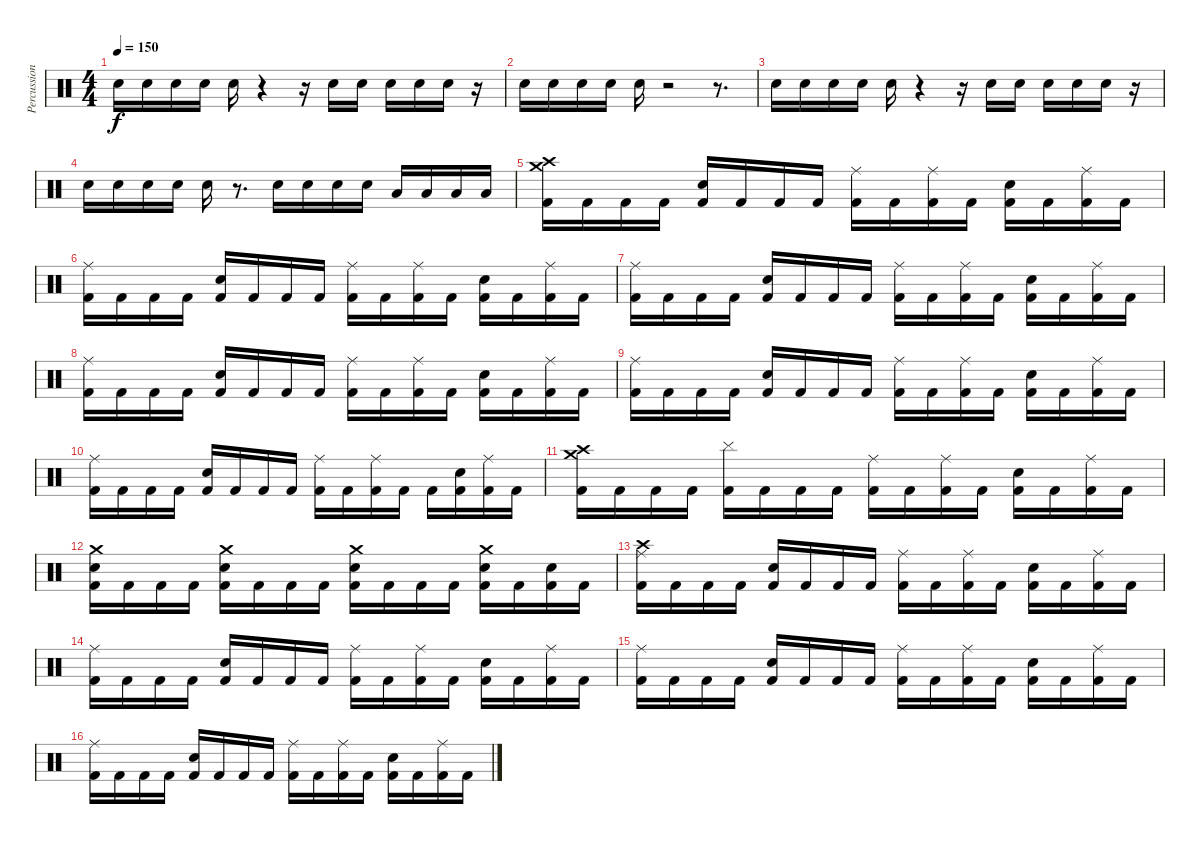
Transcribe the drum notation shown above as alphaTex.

\track ("Percussion" "Percussion") {instrument percussion}
\staff {score}
\articulation defaults
\ts (4 4)
\tempo 150
\clef neutral
\ks c "Electric Snare (hit)".16{dy f} "Electric Snare (hit)".16 "Electric Snare (hit)".16 "Electric Snare (hit)".16 "Electric Snare (hit)".16
r.4 r.16 "Electric Snare (hit)".16 "Electric Snare (hit)".16 "Electric Snare (hit)".16 "Electric Snare (hit)".16 "Electric Snare (hit)".16 r.16 |
"Electric Snare (hit)".16 "Electric Snare (hit)".16 "Electric Snare (hit)".16 "Electric Snare (hit)".16 "Electric Snare (hit)".16 r.2 r.8{d} |
"Electric Snare (hit)".16 "Electric Snare (hit)".16 "Electric Snare (hit)".16 "Electric Snare (hit)".16 "Electric Snare (hit)".16 r.4 r.16 "Electric Snare (hit)".16 "Electric Snare (hit)".16 "Electric Snare (hit)".16 "Electric Snare (hit)".16 "Electric Snare (hit)".16 r.16 |
"Electric Snare (hit)".16 "Electric Snare (hit)".16 "Electric Snare (hit)".16 "Electric Snare (hit)".16 "Electric Snare (hit)".16 r.8{d} "Electric Snare (hit)".16 "Electric Snare (hit)".16 "Electric Snare (hit)".16 "Electric Snare (hit)".16 "Low Tom (hit)".16 "Low Tom (hit)".16 "Low Tom (hit)".16 "Low Tom (hit)".16 |
("Kick (hit) 2" "Crash high (hit)" "Crash medium (hit)").16 "Kick (hit) 2".16 "Kick (hit) 2".16 "Kick (hit) 2".16 ("Kick (hit) 2" "Electric Snare (hit)").16 "Kick (hit) 2".16 "Kick (hit) 2".16 "Kick (hit) 2".16 ("Kick (hit) 2" "Ride (middle)").16 "Kick (hit) 2".16 ("Kick (hit) 2" "Ride (middle)").16 "Kick (hit) 2".16 ("Kick (hit) 2" "Electric Snare (hit)").16 "Kick (hit) 2".16 ("Kick (hit) 2" "Ride (middle)").16 "Kick (hit) 2".16 |
("Kick (hit) 2" "Ride (middle)").16 "Kick (hit) 2".16 "Kick (hit) 2".16 "Kick (hit) 2".16 ("Kick (hit) 2" "Electric Snare (hit)").16 "Kick (hit) 2".16 "Kick (hit) 2".16 "Kick (hit) 2".16 ("Kick (hit) 2" "Ride (middle)").16 "Kick (hit) 2".16 ("Kick (hit) 2" "Ride (middle)").16 "Kick (hit) 2".16 ("Kick (hit) 2" "Electric Snare (hit)").16 "Kick (hit) 2".16 ("Kick (hit) 2" "Ride (middle)").16 "Kick (hit) 2".16 |
("Kick (hit) 2" "Ride (middle)").16 "Kick (hit) 2".16 "Kick (hit) 2".16 "Kick (hit) 2".16 ("Kick (hit) 2" "Electric Snare (hit)").16 "Kick (hit) 2".16 "Kick (hit) 2".16 "Kick (hit) 2".16 ("Kick (hit) 2" "Ride (middle)").16 "Kick (hit) 2".16 ("Kick (hit) 2" "Ride (middle)").16 "Kick (hit) 2".16 ("Kick (hit) 2" "Electric Snare (hit)").16 "Kick (hit) 2".16 ("Kick (hit) 2" "Ride (middle)").16 "Kick (hit) 2".16 |
("Kick (hit) 2" "Ride (middle)").16 "Kick (hit) 2".16 "Kick (hit) 2".16 "Kick (hit) 2".16 ("Kick (hit) 2" "Electric Snare (hit)").16 "Kick (hit) 2".16 "Kick (hit) 2".16 "Kick (hit) 2".16 ("Kick (hit) 2" "Ride (middle)").16 "Kick (hit) 2".16 ("Kick (hit) 2" "Ride (middle)").16 "Kick (hit) 2".16 ("Kick (hit) 2" "Electric Snare (hit)").16 "Kick (hit) 2".16 ("Kick (hit) 2" "Ride (middle)").16 "Kick (hit) 2".16 |
("Kick (hit) 2" "Ride (middle)").16 "Kick (hit) 2".16 "Kick (hit) 2".16 "Kick (hit) 2".16 ("Kick (hit) 2" "Electric Snare (hit)").16 "Kick (hit) 2".16 "Kick (hit) 2".16 "Kick (hit) 2".16 ("Kick (hit) 2" "Ride (middle)").16 "Kick (hit) 2".16 ("Kick (hit) 2" "Ride (middle)").16 "Kick (hit) 2".16 ("Kick (hit) 2" "Electric Snare (hit)").16 "Kick (hit) 2".16 ("Kick (hit) 2" "Ride (middle)").16 "Kick (hit) 2".16 |
("Kick (hit) 2" "Ride (middle)").16 "Kick (hit) 2".16 "Kick (hit) 2".16 "Kick (hit) 2".16 ("Kick (hit) 2" "Electric Snare (hit)").16 "Kick (hit) 2".16 "Kick (hit) 2".16 "Kick (hit) 2".16 ("Kick (hit) 2" "Ride (middle)").16 "Kick (hit) 2".16 ("Kick (hit) 2" "Ride (middle)").16 "Kick (hit) 2".16 "Kick (hit) 2".16 ("Kick (hit) 2" "Electric Snare (hit)").16 ("Kick (hit) 2" "Ride (middle)").16 "Kick (hit) 2".16 |
("Kick (hit) 2" "Crash high (hit)" "Crash medium (hit)").16 "Kick (hit) 2".16 "Kick (hit) 2".16 "Kick (hit) 2".16 ("Kick (hit) 2" "Cymbal (hit)").16 "Kick (hit) 2".16 "Kick (hit) 2".16 "Kick (hit) 2".16 ("Kick (hit) 2" "Ride (middle)").16 "Kick (hit) 2".16 ("Kick (hit) 2" "Ride (middle)").16 "Kick (hit) 2".16 ("Kick (hit) 2" "Electric Snare (hit)").16 "Kick (hit) 2".16 ("Kick (hit) 2" "Ride (middle)").16 "Kick (hit) 2".16 |
("Kick (hit) 2" "Electric Snare (hit)" "Crash medium (hit)").16 "Kick (hit) 2".16 "Kick (hit) 2".16 "Kick (hit) 2".16 ("Kick (hit) 2" "Electric Snare (hit)" "Crash medium (hit)").16 "Kick (hit) 2".16 "Kick (hit) 2".16 "Kick (hit) 2".16 ("Kick (hit) 2" "Electric Snare (hit)" "Crash medium (hit)").16 "Kick (hit) 2".16 "Kick (hit) 2".16 "Kick (hit) 2".16 ("Kick (hit) 2" "Electric Snare (hit)" "Crash medium (hit)").16 "Kick (hit) 2".16 ("Kick (hit) 2" "Electric Snare (hit)").16 "Kick (hit) 2".16 |
("Kick (hit) 2" "Crash high (hit)" "Ride (middle)").16 "Kick (hit) 2".16 "Kick (hit) 2".16 "Kick (hit) 2".16 ("Kick (hit) 2" "Electric Snare (hit)").16 "Kick (hit) 2".16 "Kick (hit) 2".16 "Kick (hit) 2".16 ("Kick (hit) 2" "Ride (middle)").16 "Kick (hit) 2".16 ("Kick (hit) 2" "Ride (middle)").16 "Kick (hit) 2".16 ("Kick (hit) 2" "Electric Snare (hit)").16 "Kick (hit) 2".16 ("Kick (hit) 2" "Ride (middle)").16 "Kick (hit) 2".16 |
("Kick (hit) 2" "Ride (middle)").16 "Kick (hit) 2".16 "Kick (hit) 2".16 "Kick (hit) 2".16 ("Kick (hit) 2" "Electric Snare (hit)").16 "Kick (hit) 2".16 "Kick (hit) 2".16 "Kick (hit) 2".16 ("Kick (hit) 2" "Ride (middle)").16 "Kick (hit) 2".16 ("Kick (hit) 2" "Ride (middle)").16 "Kick (hit) 2".16 ("Kick (hit) 2" "Electric Snare (hit)").16 "Kick (hit) 2".16 ("Kick (hit) 2" "Ride (middle)").16 "Kick (hit) 2".16 |
("Kick (hit) 2" "Ride (middle)").16 "Kick (hit) 2".16 "Kick (hit) 2".16 "Kick (hit) 2".16 ("Kick (hit) 2" "Electric Snare (hit)").16 "Kick (hit) 2".16 "Kick (hit) 2".16 "Kick (hit) 2".16 ("Kick (hit) 2" "Ride (middle)").16 "Kick (hit) 2".16 ("Kick (hit) 2" "Ride (middle)").16 "Kick (hit) 2".16 ("Kick (hit) 2" "Electric Snare (hit)").16 "Kick (hit) 2".16 ("Kick (hit) 2" "Ride (middle)").16 "Kick (hit) 2".16 |
("Kick (hit) 2" "Ride (middle)").16 "Kick (hit) 2".16 "Kick (hit) 2".16 "Kick (hit) 2".16 ("Kick (hit) 2" "Electric Snare (hit)").16 "Kick (hit) 2".16 "Kick (hit) 2".16 "Kick (hit) 2".16 ("Kick (hit) 2" "Ride (middle)").16 "Kick (hit) 2".16 ("Kick (hit) 2" "Ride (middle)").16 "Kick (hit) 2".16 ("Kick (hit) 2" "Electric Snare (hit)").16 "Kick (hit) 2".16 ("Kick (hit) 2" "Ride (middle)").16 "Kick (hit) 2".16
